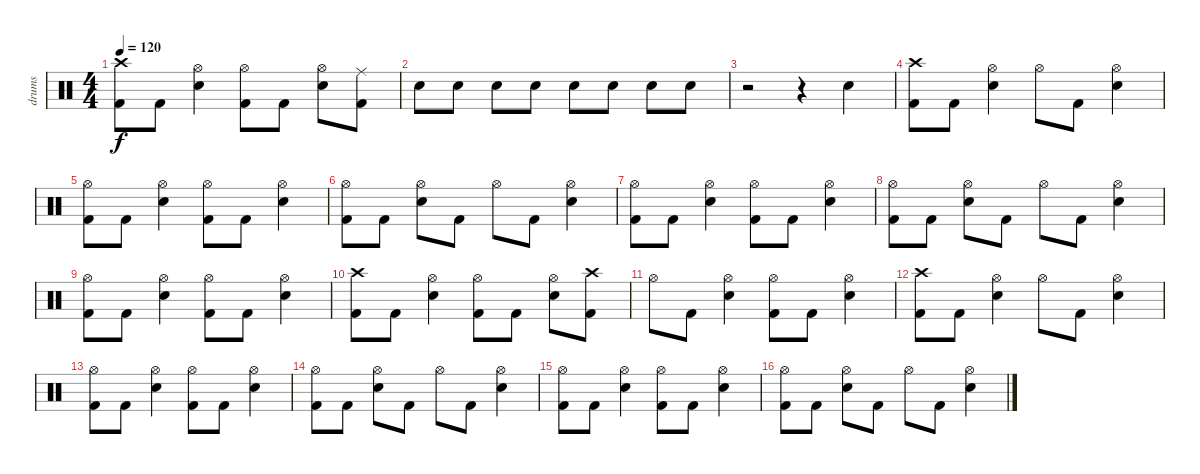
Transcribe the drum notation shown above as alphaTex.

\track ("drums" "drums") {instrument percussion}
\staff {score}
\articulation defaults
\ts (4 4)
\tempo 120
\clef neutral
\ks c
("Crash high (hit)" "Kick (hit) 2").8{dy f} "Kick (hit) 2".8 ("Hi-Hat (open)" "Electric Snare (hit)").4 ("Hi-Hat (open)" "Kick (hit) 2").8 "Kick (hit) 2".8 ("Hi-Hat (open)" "Electric Snare (hit)").8 ("Ride (middle)" "Kick (hit) 2").8 |
"Electric Snare (hit)".8 "Electric Snare (hit)".8 "Electric Snare (hit)".8 "Electric Snare (hit)".8 "Electric Snare (hit)".8 "Electric Snare (hit)".8 "Electric Snare (hit)".8 "Electric Snare (hit)".8 |
r.2 r.4 "Electric Snare (hit)".4 |
("Crash high (hit)" "Kick (hit) 2").8 "Kick (hit) 2".8 ("Hi-Hat (open)" "Electric Snare (hit)").4 "Hi-Hat (open)".8 "Kick (hit) 2".8 ("Hi-Hat (open)" "Electric Snare (hit)").4 |
("Hi-Hat (open)" "Kick (hit) 2").8 "Kick (hit) 2".8 ("Hi-Hat (open)" "Electric Snare (hit)").4 ("Hi-Hat (open)" "Kick (hit) 2").8 "Kick (hit) 2".8 ("Hi-Hat (open)" "Electric Snare (hit)").4 |
("Hi-Hat (open)" "Kick (hit) 2").8 "Kick (hit) 2".8 ("Hi-Hat (open)" "Electric Snare (hit)").8 "Kick (hit) 2".8 "Hi-Hat (open)".8 "Kick (hit) 2".8 ("Hi-Hat (open)" "Electric Snare (hit)").4 |
("Hi-Hat (open)" "Kick (hit) 2").8 "Kick (hit) 2".8 ("Hi-Hat (open)" "Electric Snare (hit)").4 ("Hi-Hat (open)" "Kick (hit) 2").8 "Kick (hit) 2".8 ("Hi-Hat (open)" "Electric Snare (hit)").4 |
("Hi-Hat (open)" "Kick (hit) 2").8 "Kick (hit) 2".8 ("Hi-Hat (open)" "Electric Snare (hit)").8 "Kick (hit) 2".8 "Hi-Hat (open)".8 "Kick (hit) 2".8 ("Hi-Hat (open)" "Electric Snare (hit)").4 |
("Hi-Hat (open)" "Kick (hit) 2").8 "Kick (hit) 2".8 ("Hi-Hat (open)" "Electric Snare (hit)").4 ("Hi-Hat (open)" "Kick (hit) 2").8 "Kick (hit) 2".8 ("Hi-Hat (open)" "Electric Snare (hit)").4 |
("Crash high (hit)" "Kick (hit) 2").8 "Kick (hit) 2".8 ("Hi-Hat (open)" "Electric Snare (hit)").4 ("Hi-Hat (open)" "Kick (hit) 2").8 "Kick (hit) 2".8 ("Hi-Hat (open)" "Electric Snare (hit)").8 ("Crash high (hit)" "Kick (hit) 2").8 |
"Hi-Hat (open)".8 "Kick (hit) 2".8 ("Hi-Hat (open)" "Electric Snare (hit)").4 ("Hi-Hat (open)" "Kick (hit) 2").8 "Kick (hit) 2".8 ("Hi-Hat (open)" "Electric Snare (hit)").4 |
("Crash high (hit)" "Kick (hit) 2").8 "Kick (hit) 2".8 ("Hi-Hat (open)" "Electric Snare (hit)").4 "Hi-Hat (open)".8 "Kick (hit) 2".8 ("Hi-Hat (open)" "Electric Snare (hit)").4 |
("Hi-Hat (open)" "Kick (hit) 2").8 "Kick (hit) 2".8 ("Hi-Hat (open)" "Electric Snare (hit)").4 ("Hi-Hat (open)" "Kick (hit) 2").8 "Kick (hit) 2".8 ("Hi-Hat (open)" "Electric Snare (hit)").4 |
("Hi-Hat (open)" "Kick (hit) 2").8 "Kick (hit) 2".8 ("Hi-Hat (open)" "Electric Snare (hit)").8 "Kick (hit) 2".8 "Hi-Hat (open)".8 "Kick (hit) 2".8 ("Hi-Hat (open)" "Electric Snare (hit)").4 |
("Hi-Hat (open)" "Kick (hit) 2").8 "Kick (hit) 2".8 ("Hi-Hat (open)" "Electric Snare (hit)").4 ("Hi-Hat (open)" "Kick (hit) 2").8 "Kick (hit) 2".8 ("Hi-Hat (open)" "Electric Snare (hit)").4 |
("Hi-Hat (open)" "Kick (hit) 2").8 "Kick (hit) 2".8 ("Hi-Hat (open)" "Electric Snare (hit)").8 "Kick (hit) 2".8 "Hi-Hat (open)".8 "Kick (hit) 2".8 ("Hi-Hat (open)" "Electric Snare (hit)").4
